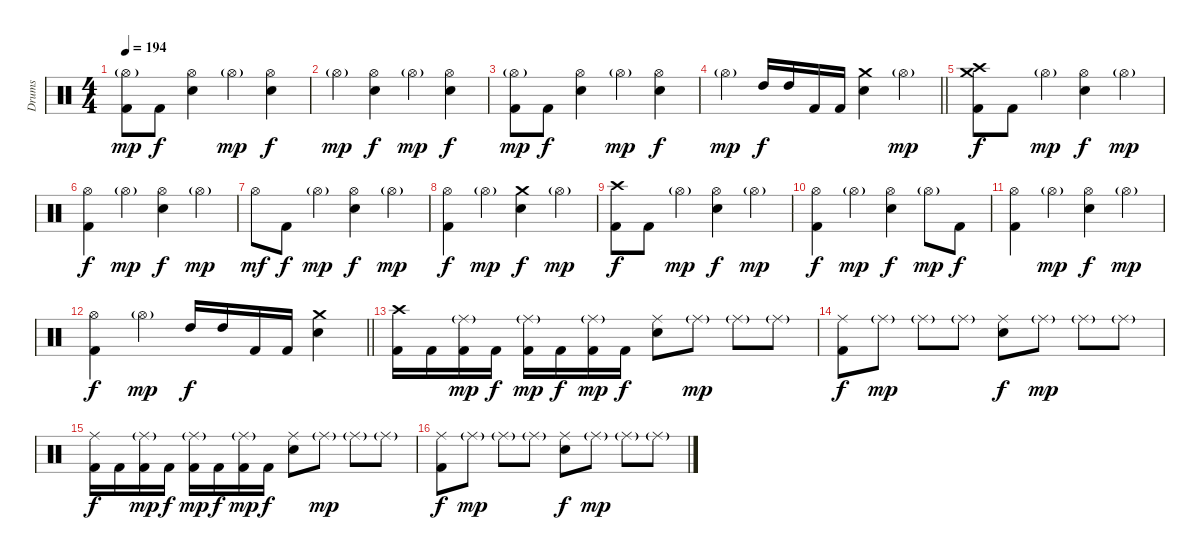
\track ("Drums" "Drums") {instrument percussion}
\staff {score}
\articulation defaults
\ts (4 4)
\tempo 194
\clef neutral
\ks c
("Hi-Hat (open)"{g} "Kick (hit) 2").8{dy mp} "Kick (hit) 2".8{dy f} ("Hi-Hat (open)" "Electric Snare (hit)").4 "Hi-Hat (open)"{g}.4{dy mp} ("Hi-Hat (open)" "Electric Snare (hit)").4{dy f} |
"Hi-Hat (open)"{g}.4{dy mp} ("Hi-Hat (open)" "Electric Snare (hit)").4{dy f} "Hi-Hat (open)"{g}.4{dy mp} ("Hi-Hat (open)" "Electric Snare (hit)").4{dy f} |
("Hi-Hat (open)"{g} "Kick (hit) 2").8{dy mp} "Kick (hit) 2".8{dy f} ("Hi-Hat (open)" "Electric Snare (hit)").4 "Hi-Hat (open)"{g}.4{dy mp} ("Hi-Hat (open)" "Electric Snare (hit)").4{dy f} |
\barLineRight lightlight "Hi-Hat (open)"{g}.4{dy mp} "High Tom (hit)".16{dy f} "High Tom (hit)".16 "Kick (hit) 2".16 "Kick (hit) 2".16
("Crash medium (hit)" "Electric Snare (hit)").4 "Hi-Hat (open)"{g}.4{dy mp} |
("Crash high (hit)" "Crash medium (hit)" "Kick (hit) 2").8{dy f} "Kick (hit) 2".8 "Hi-Hat (open)"{g}.4{dy mp} ("Hi-Hat (open)" "Electric Snare (hit)").4{dy f} "Hi-Hat (open)"{g}.4{dy mp} |
("Hi-Hat (open)" "Kick (hit) 2").4{dy f} "Hi-Hat (open)"{g}.4{dy mp} ("Hi-Hat (open)" "Electric Snare (hit)").4{dy f} "Hi-Hat (open)"{g}.4{dy mp} |
"Hi-Hat (open)".8{dy mf} "Kick (hit) 2".8{dy f} "Hi-Hat (open)"{g}.4{dy mp} ("Hi-Hat (open)" "Electric Snare (hit)").4{dy f} "Hi-Hat (open)"{g}.4{dy mp} |
("Hi-Hat (open)" "Kick (hit) 2").4{dy f} "Hi-Hat (open)"{g}.4{dy mp} ("Crash medium (hit)" "Electric Snare (hit)").4{dy f} "Hi-Hat (open)"{g}.4{dy mp} |
("Crash high (hit)" "Kick (hit) 2").8{dy f} "Kick (hit) 2".8 "Hi-Hat (open)"{g}.4{dy mp} ("Hi-Hat (open)" "Electric Snare (hit)").4{dy f} "Hi-Hat (open)"{g}.4{dy mp} |
("Hi-Hat (open)" "Kick (hit) 2").4{dy f} "Hi-Hat (open)"{g}.4{dy mp} ("Hi-Hat (open)" "Electric Snare (hit)").4{dy f} "Hi-Hat (open)"{g}.8{dy mp} "Kick (hit) 2".8{dy f} |
("Hi-Hat (open)" "Kick (hit) 2").4 "Hi-Hat (open)"{g}.4{dy mp} ("Hi-Hat (open)" "Electric Snare (hit)").4{dy f} "Hi-Hat (open)"{g}.4{dy mp} |
\barLineRight lightlight
("Hi-Hat (open)" "Kick (hit) 2").4{dy f} "Hi-Hat (open)"{g}.4{dy mp} "High Tom (hit)".16{dy f} "High Tom (hit)".16 "Kick (hit) 2".16 "Kick (hit) 2".16 ("Crash medium (hit)" "Electric Snare (hit)").4 |
("Crash high (hit)" "Kick (hit) 2").16 "Kick (hit) 2".16 ("Ride (middle)"{g} "Kick (hit) 2").16{dy mp} "Kick (hit) 2".16{dy f} ("Ride (middle)"{g} "Kick (hit) 2").16{dy mp} "Kick (hit) 2".16{dy f} ("Ride (middle)"{g} "Kick (hit) 2").16{dy mp} "Kick (hit) 2".16{dy f} ("Ride (middle)" "Electric Snare (hit)").8 "Ride (middle)"{g}.8{dy mp} "Ride (middle)"{g}.8 "Ride (middle)"{g}.8 |
("Ride (middle)" "Kick (hit) 2").8{dy f} "Ride (middle)"{g}.8{dy mp} "Ride (middle)"{g}.8 "Ride (middle)"{g}.8 ("Ride (middle)" "Electric Snare (hit)").8{dy f} "Ride (middle)"{g}.8{dy mp} "Ride (middle)"{g}.8 "Ride (middle)"{g}.8 |
("Ride (middle)" "Kick (hit) 2").16{dy f} "Kick (hit) 2".16 ("Ride (middle)"{g} "Kick (hit) 2").16{dy mp} "Kick (hit) 2".16{dy f} ("Ride (middle)"{g} "Kick (hit) 2").16{dy mp} "Kick (hit) 2".16{dy f} ("Ride (middle)"{g} "Kick (hit) 2").16{dy mp} "Kick (hit) 2".16{dy f} ("Ride (middle)" "Electric Snare (hit)").8 "Ride (middle)"{g}.8{dy mp} "Ride (middle)"{g}.8 "Ride (middle)"{g}.8 |
("Ride (middle)" "Kick (hit) 2").8{dy f} "Ride (middle)"{g}.8{dy mp} "Ride (middle)"{g}.8 "Ride (middle)"{g}.8 ("Ride (middle)" "Electric Snare (hit)").8{dy f} "Ride (middle)"{g}.8{dy mp} "Ride (middle)"{g}.8 "Ride (middle)"{g}.8
